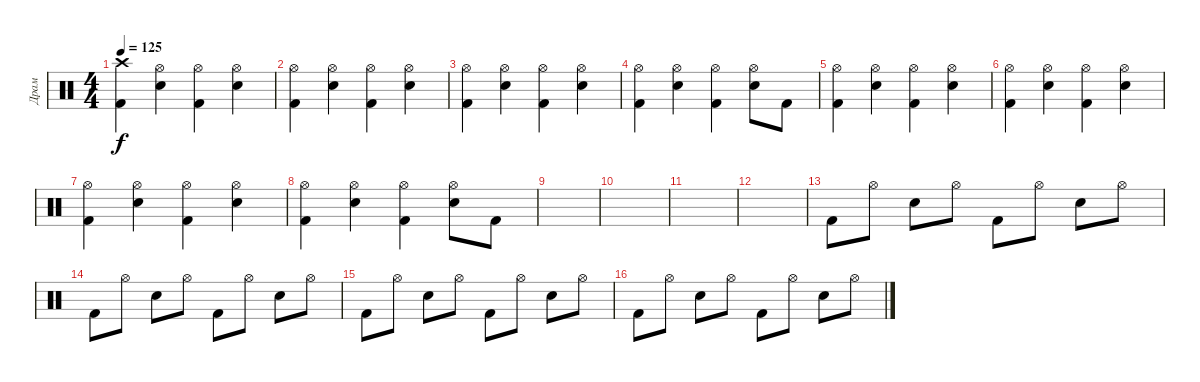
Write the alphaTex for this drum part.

\track ("Драм" "Драм") {instrument percussion}
\staff {score}
\articulation defaults
\ts (4 4)
\tempo 125
\clef neutral
\ks c
("Crash high (hit)" "Kick (hit) 2").4{dy f} ("Hi-Hat (open)" "Snare (hit) 2").4 ("Hi-Hat (open)" "Kick (hit) 2").4 ("Hi-Hat (open)" "Snare (hit) 2").4 |
("Hi-Hat (open)" "Kick (hit) 2").4 ("Hi-Hat (open)" "Snare (hit) 2").4 ("Hi-Hat (open)" "Kick (hit) 2").4 ("Hi-Hat (open)" "Snare (hit) 2").4 |
("Hi-Hat (open)" "Kick (hit) 2").4 ("Hi-Hat (open)" "Snare (hit) 2").4 ("Hi-Hat (open)" "Kick (hit) 2").4 ("Hi-Hat (open)" "Snare (hit) 2").4 |
("Hi-Hat (open)" "Kick (hit) 2").4 ("Hi-Hat (open)" "Snare (hit) 2").4 ("Hi-Hat (open)" "Kick (hit) 2").4 ("Hi-Hat (open)" "Snare (hit) 2").8 "Kick (hit) 2".8 |
("Hi-Hat (open)" "Kick (hit) 2").4 ("Hi-Hat (open)" "Snare (hit) 2").4 ("Hi-Hat (open)" "Kick (hit) 2").4 ("Hi-Hat (open)" "Snare (hit) 2").4 |
("Hi-Hat (open)" "Kick (hit) 2").4 ("Hi-Hat (open)" "Snare (hit) 2").4 ("Hi-Hat (open)" "Kick (hit) 2").4 ("Hi-Hat (open)" "Snare (hit) 2").4 |
("Hi-Hat (open)" "Kick (hit) 2").4 ("Hi-Hat (open)" "Snare (hit) 2").4 ("Hi-Hat (open)" "Kick (hit) 2").4 ("Hi-Hat (open)" "Snare (hit) 2").4 |
("Hi-Hat (open)" "Kick (hit) 2").4 ("Hi-Hat (open)" "Snare (hit) 2").4 ("Hi-Hat (open)" "Kick (hit) 2").4 ("Hi-Hat (open)" "Snare (hit) 2").8 "Kick (hit) 2".8 |
|
|
|
|
"Kick (hit) 2".8 "Hi-Hat (open)".8 "Snare (hit) 2".8 "Hi-Hat (open)".8 "Kick (hit) 2".8 "Hi-Hat (open)".8 "Snare (hit) 2".8 "Hi-Hat (open)".8 |
"Kick (hit) 2".8 "Hi-Hat (open)".8 "Snare (hit) 2".8 "Hi-Hat (open)".8 "Kick (hit) 2".8 "Hi-Hat (open)".8 "Snare (hit) 2".8 "Hi-Hat (open)".8 |
"Kick (hit) 2".8 "Hi-Hat (open)".8 "Snare (hit) 2".8 "Hi-Hat (open)".8 "Kick (hit) 2".8 "Hi-Hat (open)".8 "Snare (hit) 2".8 "Hi-Hat (open)".8 |
"Kick (hit) 2".8 "Hi-Hat (open)".8 "Snare (hit) 2".8 "Hi-Hat (open)".8 "Kick (hit) 2".8 "Hi-Hat (open)".8 "Snare (hit) 2".8 "Hi-Hat (open)".8
